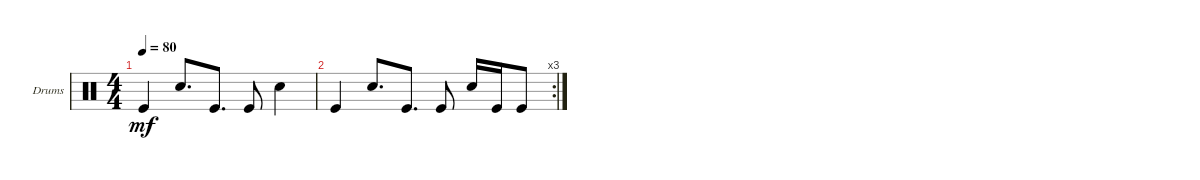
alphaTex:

\defaultSystemsLayout 4
\bracketExtendMode groupsimilarinstruments
\firstSystemTrackNameOrientation horizontal
\otherSystemsTrackNameOrientation horizontal
\track ("Drumkit" "Drums") {instrument percussion}
\staff {score}
\articulation defaults
\ts (4 4)
\tempo 80
\clef neutral
\ks c "Kick (hit)".4{dy mf} "Snare (hit) 2".8{d} "Kick (hit)".8{d} "Kick (hit)".8 "Snare (hit) 2".4
|
\rc 3 "Kick (hit)".4 "Snare (hit) 2".8{d} "Kick (hit)".8{d} "Kick (hit)".8 "Snare (hit) 2".16 "Kick (hit)".16 "Kick (hit)".8
